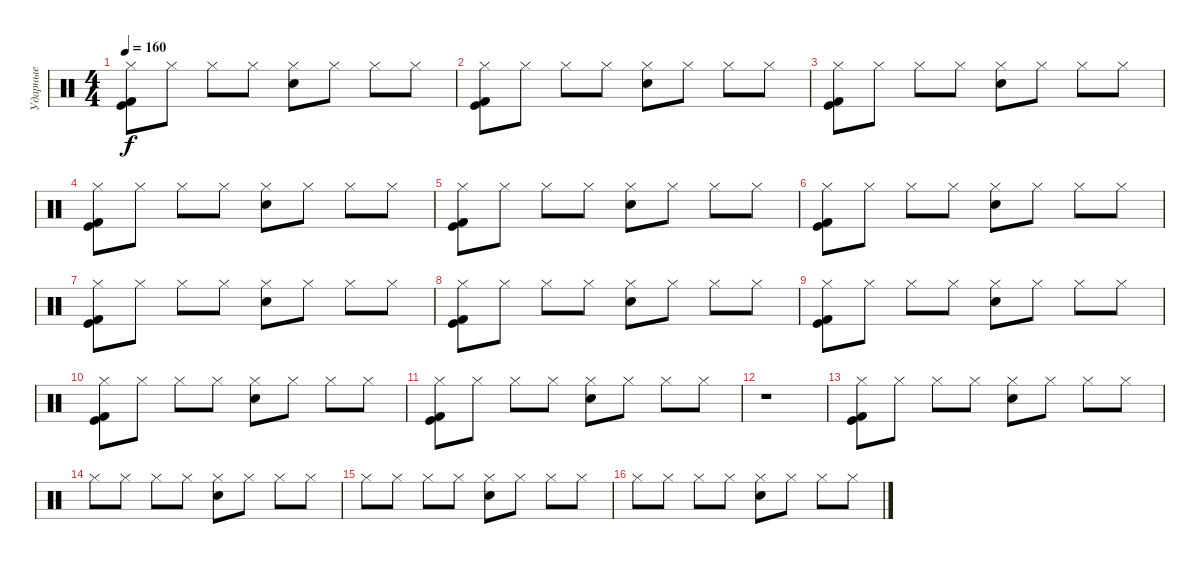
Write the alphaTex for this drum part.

\track ("Ударные" "Ударные") {instrument percussion}
\staff {score}
\articulation defaults
\ts (4 4)
\tempo 160
\clef neutral
\ks c
("Kick (hit) 2" "Hi-Hat (closed)" "Kick (hit)").8{dy f} "Hi-Hat (closed)".8 "Hi-Hat (closed)".8 "Hi-Hat (closed)".8 ("Hi-Hat (closed)" "Electric Snare (hit)").8 "Hi-Hat (closed)".8 "Hi-Hat (closed)".8 "Hi-Hat (closed)".8 |
("Kick (hit) 2" "Hi-Hat (closed)" "Kick (hit)").8 "Hi-Hat (closed)".8 "Hi-Hat (closed)".8 "Hi-Hat (closed)".8 ("Hi-Hat (closed)" "Electric Snare (hit)").8 "Hi-Hat (closed)".8 "Hi-Hat (closed)".8 "Hi-Hat (closed)".8 |
("Kick (hit) 2" "Hi-Hat (closed)" "Kick (hit)").8 "Hi-Hat (closed)".8 "Hi-Hat (closed)".8 "Hi-Hat (closed)".8 ("Hi-Hat (closed)" "Electric Snare (hit)").8 "Hi-Hat (closed)".8 "Hi-Hat (closed)".8 "Hi-Hat (closed)".8 |
("Kick (hit) 2" "Hi-Hat (closed)" "Kick (hit)").8 "Hi-Hat (closed)".8 "Hi-Hat (closed)".8 "Hi-Hat (closed)".8 ("Hi-Hat (closed)" "Electric Snare (hit)").8 "Hi-Hat (closed)".8 "Hi-Hat (closed)".8 "Hi-Hat (closed)".8 |
("Kick (hit) 2" "Hi-Hat (closed)" "Kick (hit)").8 "Hi-Hat (closed)".8 "Hi-Hat (closed)".8 "Hi-Hat (closed)".8 ("Hi-Hat (closed)" "Electric Snare (hit)").8 "Hi-Hat (closed)".8 "Hi-Hat (closed)".8 "Hi-Hat (closed)".8 |
("Kick (hit) 2" "Hi-Hat (closed)" "Kick (hit)").8 "Hi-Hat (closed)".8 "Hi-Hat (closed)".8 "Hi-Hat (closed)".8 ("Hi-Hat (closed)" "Electric Snare (hit)").8 "Hi-Hat (closed)".8 "Hi-Hat (closed)".8 "Hi-Hat (closed)".8 |
("Kick (hit) 2" "Hi-Hat (closed)" "Kick (hit)").8 "Hi-Hat (closed)".8 "Hi-Hat (closed)".8 "Hi-Hat (closed)".8 ("Hi-Hat (closed)" "Electric Snare (hit)").8 "Hi-Hat (closed)".8 "Hi-Hat (closed)".8 "Hi-Hat (closed)".8 |
("Kick (hit) 2" "Hi-Hat (closed)" "Kick (hit)").8 "Hi-Hat (closed)".8 "Hi-Hat (closed)".8 "Hi-Hat (closed)".8 ("Hi-Hat (closed)" "Electric Snare (hit)").8 "Hi-Hat (closed)".8 "Hi-Hat (closed)".8 "Hi-Hat (closed)".8 |
("Kick (hit) 2" "Hi-Hat (closed)" "Kick (hit)").8 "Hi-Hat (closed)".8 "Hi-Hat (closed)".8 "Hi-Hat (closed)".8 ("Hi-Hat (closed)" "Electric Snare (hit)").8 "Hi-Hat (closed)".8 "Hi-Hat (closed)".8 "Hi-Hat (closed)".8 |
("Kick (hit) 2" "Hi-Hat (closed)" "Kick (hit)").8 "Hi-Hat (closed)".8 "Hi-Hat (closed)".8 "Hi-Hat (closed)".8 ("Hi-Hat (closed)" "Electric Snare (hit)").8 "Hi-Hat (closed)".8 "Hi-Hat (closed)".8 "Hi-Hat (closed)".8 |
("Kick (hit) 2" "Hi-Hat (closed)" "Kick (hit)").8 "Hi-Hat (closed)".8 "Hi-Hat (closed)".8 "Hi-Hat (closed)".8 ("Hi-Hat (closed)" "Electric Snare (hit)").8 "Hi-Hat (closed)".8 "Hi-Hat (closed)".8 "Hi-Hat (closed)".8 |
r.1 |
("Kick (hit) 2" "Hi-Hat (closed)" "Kick (hit)").8 "Hi-Hat (closed)".8 "Hi-Hat (closed)".8 "Hi-Hat (closed)".8 ("Hi-Hat (closed)" "Electric Snare (hit)").8 "Hi-Hat (closed)".8 "Hi-Hat (closed)".8 "Hi-Hat (closed)".8 |
"Hi-Hat (closed)".8 "Hi-Hat (closed)".8 "Hi-Hat (closed)".8 "Hi-Hat (closed)".8 ("Hi-Hat (closed)" "Electric Snare (hit)").8 "Hi-Hat (closed)".8 "Hi-Hat (closed)".8 "Hi-Hat (closed)".8 |
"Hi-Hat (closed)".8 "Hi-Hat (closed)".8 "Hi-Hat (closed)".8 "Hi-Hat (closed)".8 ("Hi-Hat (closed)" "Electric Snare (hit)").8 "Hi-Hat (closed)".8 "Hi-Hat (closed)".8 "Hi-Hat (closed)".8 |
"Hi-Hat (closed)".8 "Hi-Hat (closed)".8 "Hi-Hat (closed)".8 "Hi-Hat (closed)".8 ("Hi-Hat (closed)" "Electric Snare (hit)").8 "Hi-Hat (closed)".8 "Hi-Hat (closed)".8 "Hi-Hat (closed)".8
